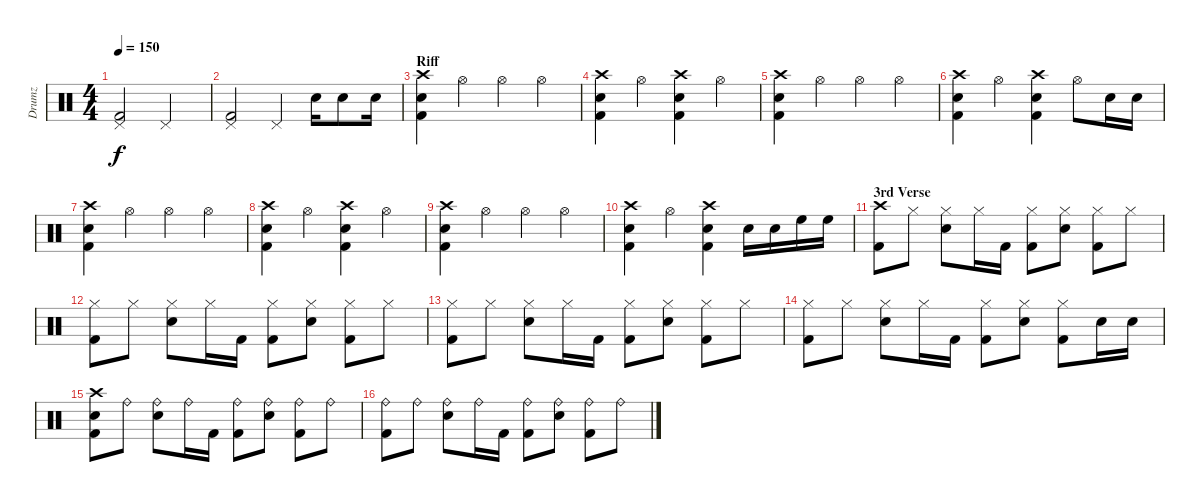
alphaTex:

\track ("Drumz" "Drumz") {instrument percussion}
\staff {score}
\articulation defaults
\ts (4 4)
\tempo 150
\clef neutral
\ks c
("Pedal Hi-Hat (hit)" "Kick (hit) 2").2{dy f} "Pedal Hi-Hat (hit)".2 |
("Pedal Hi-Hat (hit)" "Kick (hit) 2").2 "Pedal Hi-Hat (hit)".4 "Snare (hit) 2".16 "Snare (hit) 2".8 "Snare (hit) 2".16 |
\section ("" "Riff")
("Crash high (hit)" "Snare (hit) 2" "Kick (hit) 2").4 "Hi-Hat (open)".4 "Hi-Hat (open)".4 "Hi-Hat (open)".4 |
("Crash high (hit)" "Snare (hit) 2" "Kick (hit) 2").4 "Hi-Hat (open)".4 ("Crash high (hit)" "Snare (hit) 2" "Kick (hit) 2").4 "Hi-Hat (open)".4 |
("Crash high (hit)" "Snare (hit) 2" "Kick (hit) 2").4 "Hi-Hat (open)".4 "Hi-Hat (open)".4 "Hi-Hat (open)".4 |
("Crash high (hit)" "Snare (hit) 2" "Kick (hit) 2").4 "Hi-Hat (open)".4 ("Crash high (hit)" "Snare (hit) 2" "Kick (hit) 2").4 "Hi-Hat (open)".8 "Snare (hit) 2".16 "Snare (hit) 2".16 |
("Crash high (hit)" "Snare (hit) 2" "Kick (hit) 2").4 "Hi-Hat (open)".4 "Hi-Hat (open)".4 "Hi-Hat (open)".4 |
("Crash high (hit)" "Snare (hit) 2" "Kick (hit) 2").4 "Hi-Hat (open)".4 ("Crash high (hit)" "Snare (hit) 2" "Kick (hit) 2").4 "Hi-Hat (open)".4 |
("Crash high (hit)" "Snare (hit) 2" "Kick (hit) 2").4 "Hi-Hat (open)".4 "Hi-Hat (open)".4 "Hi-Hat (open)".4 |
("Crash high (hit)" "Snare (hit) 2" "Kick (hit) 2").4 "Hi-Hat (open)".4 ("Crash high (hit)" "Snare (hit) 2" "Kick (hit) 2").4 "Snare (hit) 2".16 "Snare (hit) 2".16 "High Floor Tom (hit)".16 "High Floor Tom (hit)".16 |
\section ("" "3rd Verse")
("Crash high (hit)" "Kick (hit) 2").8 "Hi-Hat (closed)".8 ("Hi-Hat (closed)" "Snare (hit) 2").8 "Hi-Hat (closed)".16 "Kick (hit) 2".16 ("Hi-Hat (closed)" "Kick (hit) 2").8 ("Hi-Hat (closed)" "Snare (hit) 2").8 ("Hi-Hat (closed)" "Kick (hit) 2").8 "Hi-Hat (closed)".8 |
("Hi-Hat (closed)" "Kick (hit) 2").8 "Hi-Hat (closed)".8 ("Hi-Hat (closed)" "Snare (hit) 2").8 "Hi-Hat (closed)".16 "Kick (hit) 2".16 ("Hi-Hat (closed)" "Kick (hit) 2").8 ("Hi-Hat (closed)" "Snare (hit) 2").8 ("Hi-Hat (closed)" "Kick (hit) 2").8 "Hi-Hat (closed)".8 |
("Hi-Hat (closed)" "Kick (hit) 2").8 "Hi-Hat (closed)".8 ("Hi-Hat (closed)" "Snare (hit) 2").8 "Hi-Hat (closed)".16 "Kick (hit) 2".16 ("Hi-Hat (closed)" "Kick (hit) 2").8 ("Hi-Hat (closed)" "Snare (hit) 2").8 ("Hi-Hat (closed)" "Kick (hit) 2").8 "Hi-Hat (closed)".8 |
("Hi-Hat (closed)" "Kick (hit) 2").8 "Hi-Hat (closed)".8 ("Hi-Hat (closed)" "Snare (hit) 2").8 "Hi-Hat (closed)".16 "Kick (hit) 2".16 ("Hi-Hat (closed)" "Kick (hit) 2").8 ("Hi-Hat (closed)" "Snare (hit) 2").8 ("Hi-Hat (closed)" "Kick (hit) 2").8 "Snare (hit) 2".16 "Snare (hit) 2".16 |
("Crash high (hit)" "Snare (hit) 2" "Kick (hit) 2").8 "Ride (bell)".8 ("Ride (bell)" "Snare (hit) 2").8 "Ride (bell)".16 "Kick (hit) 2".16 ("Ride (bell)" "Kick (hit) 2").8 ("Ride (bell)" "Snare (hit) 2").8 ("Ride (bell)" "Kick (hit) 2").8 "Ride (bell)".8 |
("Ride (bell)" "Kick (hit) 2").8 "Ride (bell)".8 ("Ride (bell)" "Snare (hit) 2").8 "Ride (bell)".16 "Kick (hit) 2".16 ("Ride (bell)" "Kick (hit) 2").8 ("Ride (bell)" "Snare (hit) 2").8 ("Ride (bell)" "Kick (hit) 2").8 "Ride (bell)".8
